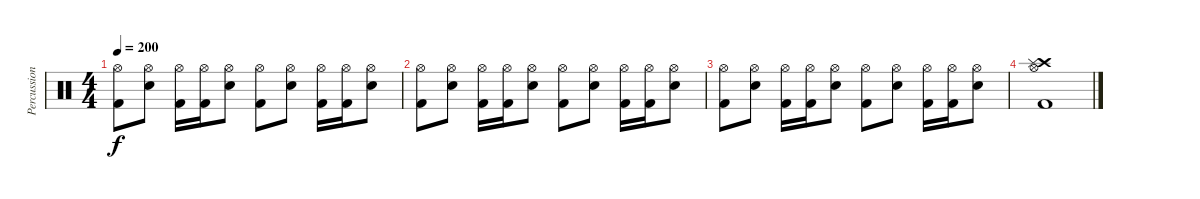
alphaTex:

\track ("Percussions" "Percussion") {instrument percussion}
\staff {score}
\articulation defaults
\ts (4 4)
\tempo 200
\clef neutral
\ks c
("Hi-Hat (open)" "Kick (hit) 2").8{dy f} ("Hi-Hat (open)" "Electric Snare (hit)").8 ("Hi-Hat (open)" "Kick (hit) 2").16 ("Hi-Hat (open)" "Kick (hit) 2").16 ("Hi-Hat (open)" "Electric Snare (hit)").8 ("Hi-Hat (open)" "Kick (hit) 2").8 ("Hi-Hat (open)" "Electric Snare (hit)").8 ("Hi-Hat (open)" "Kick (hit) 2").16 ("Hi-Hat (open)" "Kick (hit) 2").16 ("Hi-Hat (open)" "Electric Snare (hit)").8 |
("Hi-Hat (open)" "Kick (hit) 2").8 ("Hi-Hat (open)" "Electric Snare (hit)").8 ("Hi-Hat (open)" "Kick (hit) 2").16 ("Hi-Hat (open)" "Kick (hit) 2").16 ("Hi-Hat (open)" "Electric Snare (hit)").8 ("Hi-Hat (open)" "Kick (hit) 2").8 ("Hi-Hat (open)" "Electric Snare (hit)").8 ("Hi-Hat (open)" "Kick (hit) 2").16 ("Hi-Hat (open)" "Kick (hit) 2").16 ("Hi-Hat (open)" "Electric Snare (hit)").8 |
("Hi-Hat (open)" "Kick (hit) 2").8 ("Hi-Hat (open)" "Electric Snare (hit)").8 ("Hi-Hat (open)" "Kick (hit) 2").16 ("Hi-Hat (open)" "Kick (hit) 2").16 ("Hi-Hat (open)" "Electric Snare (hit)").8 ("Hi-Hat (open)" "Kick (hit) 2").8 ("Hi-Hat (open)" "Electric Snare (hit)").8 ("Hi-Hat (open)" "Kick (hit) 2").16 ("Hi-Hat (open)" "Kick (hit) 2").16 ("Hi-Hat (open)" "Electric Snare (hit)").8 |
("Hi-Hat (open)" "Kick (hit) 2" "Crash high (hit)" "Splash (hit)").1
